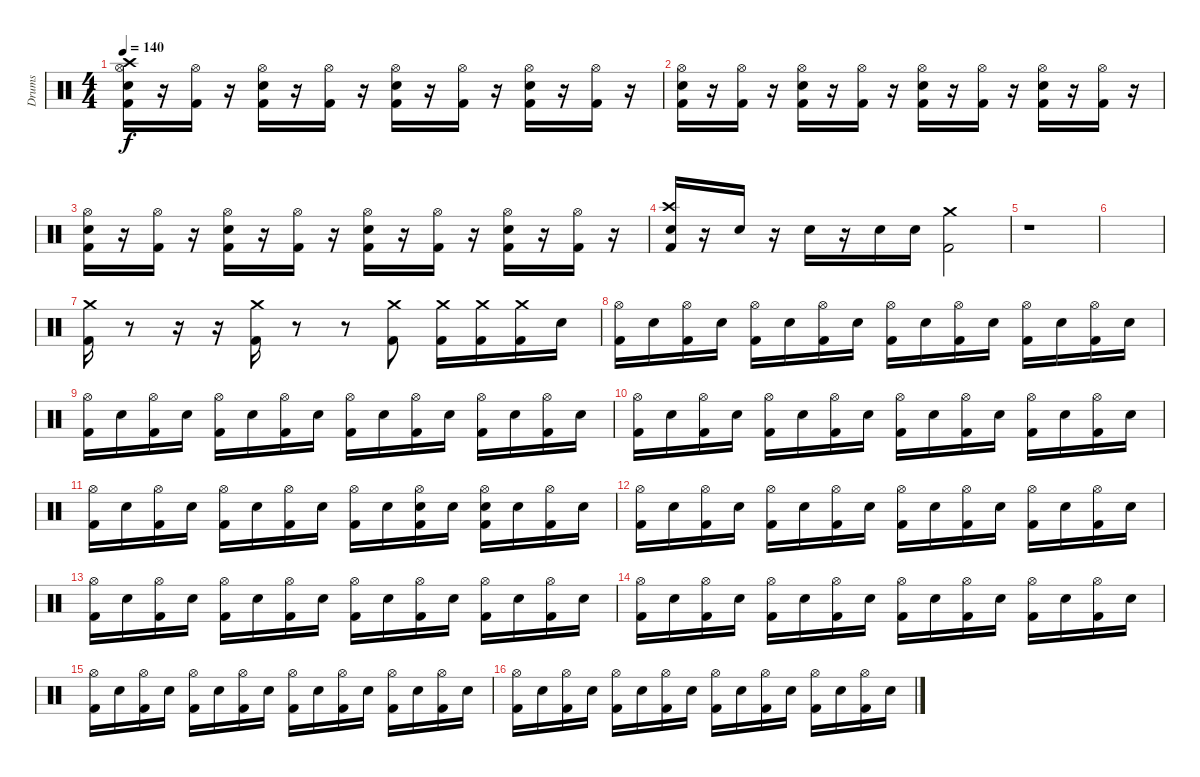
\track ("Drums" "Drums") {instrument percussion}
\staff {score}
\articulation defaults
\ts (4 4)
\tempo 140
\clef neutral
\ks c
("Hi-Hat (open)" "Electric Snare (hit)" "Crash high (hit)" "Kick (hit) 2").16{dy f} r.16 ("Hi-Hat (open)" "Kick (hit) 2").16 r.16 ("Hi-Hat (open)" "Electric Snare (hit)" "Kick (hit) 2").16 r.16 ("Hi-Hat (open)" "Kick (hit) 2").16 r.16 ("Hi-Hat (open)" "Electric Snare (hit)" "Kick (hit) 2").16 r.16 ("Hi-Hat (open)" "Kick (hit) 2").16 r.16 ("Hi-Hat (open)" "Electric Snare (hit)" "Kick (hit) 2").16 r.16 ("Hi-Hat (open)" "Kick (hit) 2").16 r.16 |
("Hi-Hat (open)" "Electric Snare (hit)" "Kick (hit) 2").16 r.16 ("Hi-Hat (open)" "Kick (hit) 2").16 r.16 ("Hi-Hat (open)" "Electric Snare (hit)" "Kick (hit) 2").16 r.16 ("Hi-Hat (open)" "Kick (hit) 2").16 r.16 ("Hi-Hat (open)" "Electric Snare (hit)" "Kick (hit) 2").16 r.16 ("Hi-Hat (open)" "Kick (hit) 2").16 r.16 ("Hi-Hat (open)" "Electric Snare (hit)" "Kick (hit) 2").16 r.16 ("Hi-Hat (open)" "Kick (hit) 2").16 r.16 |
("Hi-Hat (open)" "Electric Snare (hit)" "Kick (hit) 2").16 r.16 ("Hi-Hat (open)" "Kick (hit) 2").16 r.16 ("Hi-Hat (open)" "Electric Snare (hit)" "Kick (hit) 2").16 r.16 ("Hi-Hat (open)" "Kick (hit) 2").16 r.16 ("Hi-Hat (open)" "Electric Snare (hit)" "Kick (hit) 2").16 r.16 ("Hi-Hat (open)" "Kick (hit) 2").16 r.16 ("Hi-Hat (open)" "Electric Snare (hit)" "Kick (hit) 2").16 r.16 ("Hi-Hat (open)" "Kick (hit) 2").16 r.16 |
("Crash high (hit)" "Electric Snare (hit)" "Kick (hit) 2").16 r.16 "Electric Snare (hit)".16 r.16 "Electric Snare (hit)".16 r.16 "Electric Snare (hit)".16 "Electric Snare (hit)".16 ("Crash medium (hit)" "Kick (hit) 2").2 |
r.1 |
|
("Crash medium (hit)" "Kick (hit) 2").16 r.8 r.16 r.16 ("Crash medium (hit)" "Kick (hit) 2").16 r.8 r.8 ("Crash medium (hit)" "Kick (hit) 2").8 ("Crash medium (hit)" "Kick (hit) 2").16 ("Crash medium (hit)" "Kick (hit) 2").16 ("Crash medium (hit)" "Kick (hit) 2").16 "Electric Snare (hit)".16 |
("Hi-Hat (open)" "Kick (hit) 2").16 "Electric Snare (hit)".16 ("Hi-Hat (open)" "Kick (hit) 2").16 "Electric Snare (hit)".16 ("Hi-Hat (open)" "Kick (hit) 2").16 "Electric Snare (hit)".16 ("Hi-Hat (open)" "Kick (hit) 2").16 "Electric Snare (hit)".16 ("Hi-Hat (open)" "Kick (hit) 2").16 "Electric Snare (hit)".16 ("Hi-Hat (open)" "Kick (hit) 2").16 "Electric Snare (hit)".16 ("Hi-Hat (open)" "Kick (hit) 2").16 "Electric Snare (hit)".16 ("Hi-Hat (open)" "Kick (hit) 2").16 "Electric Snare (hit)".16 |
("Hi-Hat (open)" "Kick (hit) 2").16 "Electric Snare (hit)".16 ("Hi-Hat (open)" "Kick (hit) 2").16 "Electric Snare (hit)".16 ("Hi-Hat (open)" "Kick (hit) 2").16 "Electric Snare (hit)".16 ("Hi-Hat (open)" "Kick (hit) 2").16 "Electric Snare (hit)".16 ("Hi-Hat (open)" "Kick (hit) 2").16 "Electric Snare (hit)".16 ("Hi-Hat (open)" "Kick (hit) 2").16 "Electric Snare (hit)".16 ("Hi-Hat (open)" "Kick (hit) 2").16 "Electric Snare (hit)".16 ("Hi-Hat (open)" "Kick (hit) 2").16 "Electric Snare (hit)".16 |
("Hi-Hat (open)" "Kick (hit) 2").16 "Electric Snare (hit)".16 ("Hi-Hat (open)" "Kick (hit) 2").16 "Electric Snare (hit)".16 ("Hi-Hat (open)" "Kick (hit) 2").16 "Electric Snare (hit)".16 ("Hi-Hat (open)" "Kick (hit) 2").16 "Electric Snare (hit)".16 ("Hi-Hat (open)" "Kick (hit) 2").16 "Electric Snare (hit)".16 ("Hi-Hat (open)" "Kick (hit) 2").16 "Electric Snare (hit)".16 ("Hi-Hat (open)" "Kick (hit) 2").16 "Electric Snare (hit)".16 ("Hi-Hat (open)" "Kick (hit) 2").16 "Electric Snare (hit)".16 |
("Hi-Hat (open)" "Kick (hit) 2").16 "Electric Snare (hit)".16 ("Hi-Hat (open)" "Kick (hit) 2").16 "Electric Snare (hit)".16 ("Hi-Hat (open)" "Kick (hit) 2").16 "Electric Snare (hit)".16 ("Hi-Hat (open)" "Kick (hit) 2").16 "Electric Snare (hit)".16 ("Hi-Hat (open)" "Kick (hit) 2").16 "Electric Snare (hit)".16 ("Hi-Hat (open)" "Electric Snare (hit)" "Kick (hit) 2").16 "Electric Snare (hit)".16 ("Hi-Hat (open)" "Electric Snare (hit)" "Kick (hit) 2").16 "Electric Snare (hit)".16 ("Hi-Hat (open)" "Kick (hit) 2").16 "Electric Snare (hit)".16 |
("Hi-Hat (open)" "Kick (hit) 2").16 "Electric Snare (hit)".16 ("Hi-Hat (open)" "Kick (hit) 2").16 "Electric Snare (hit)".16 ("Hi-Hat (open)" "Kick (hit) 2").16 "Electric Snare (hit)".16 ("Hi-Hat (open)" "Kick (hit) 2").16 "Electric Snare (hit)".16 ("Hi-Hat (open)" "Kick (hit) 2").16 "Electric Snare (hit)".16 ("Hi-Hat (open)" "Kick (hit) 2").16 "Electric Snare (hit)".16 ("Hi-Hat (open)" "Kick (hit) 2").16 "Electric Snare (hit)".16 ("Hi-Hat (open)" "Kick (hit) 2").16 "Electric Snare (hit)".16 |
("Hi-Hat (open)" "Kick (hit) 2").16 "Electric Snare (hit)".16 ("Hi-Hat (open)" "Kick (hit) 2").16 "Electric Snare (hit)".16 ("Hi-Hat (open)" "Kick (hit) 2").16 "Electric Snare (hit)".16 ("Hi-Hat (open)" "Kick (hit) 2").16 "Electric Snare (hit)".16 ("Hi-Hat (open)" "Kick (hit) 2").16 "Electric Snare (hit)".16 ("Hi-Hat (open)" "Kick (hit) 2").16 "Electric Snare (hit)".16 ("Hi-Hat (open)" "Kick (hit) 2").16 "Electric Snare (hit)".16 ("Hi-Hat (open)" "Kick (hit) 2").16 "Electric Snare (hit)".16 |
("Hi-Hat (open)" "Kick (hit) 2").16 "Electric Snare (hit)".16 ("Hi-Hat (open)" "Kick (hit) 2").16 "Electric Snare (hit)".16 ("Hi-Hat (open)" "Kick (hit) 2").16 "Electric Snare (hit)".16 ("Hi-Hat (open)" "Kick (hit) 2").16 "Electric Snare (hit)".16 ("Hi-Hat (open)" "Kick (hit) 2").16 "Electric Snare (hit)".16 ("Hi-Hat (open)" "Kick (hit) 2").16 "Electric Snare (hit)".16 ("Hi-Hat (open)" "Kick (hit) 2").16 "Electric Snare (hit)".16 ("Hi-Hat (open)" "Kick (hit) 2").16 "Electric Snare (hit)".16 |
("Hi-Hat (open)" "Kick (hit) 2").16 "Electric Snare (hit)".16 ("Hi-Hat (open)" "Kick (hit) 2").16 "Electric Snare (hit)".16 ("Hi-Hat (open)" "Kick (hit) 2").16 "Electric Snare (hit)".16 ("Hi-Hat (open)" "Kick (hit) 2").16 "Electric Snare (hit)".16 ("Hi-Hat (open)" "Kick (hit) 2").16 "Electric Snare (hit)".16 ("Hi-Hat (open)" "Kick (hit) 2").16 "Electric Snare (hit)".16 ("Hi-Hat (open)" "Kick (hit) 2").16 "Electric Snare (hit)".16 ("Hi-Hat (open)" "Kick (hit) 2").16 "Electric Snare (hit)".16 |
("Hi-Hat (open)" "Kick (hit) 2").16 "Electric Snare (hit)".16 ("Hi-Hat (open)" "Kick (hit) 2").16 "Electric Snare (hit)".16 ("Hi-Hat (open)" "Kick (hit) 2").16 "Electric Snare (hit)".16 ("Hi-Hat (open)" "Kick (hit) 2").16 "Electric Snare (hit)".16 ("Hi-Hat (open)" "Kick (hit) 2").16 "Electric Snare (hit)".16 ("Hi-Hat (open)" "Kick (hit) 2").16 "Electric Snare (hit)".16 ("Hi-Hat (open)" "Kick (hit) 2").16 "Electric Snare (hit)".16 ("Hi-Hat (open)" "Kick (hit) 2").16 "Electric Snare (hit)".16
